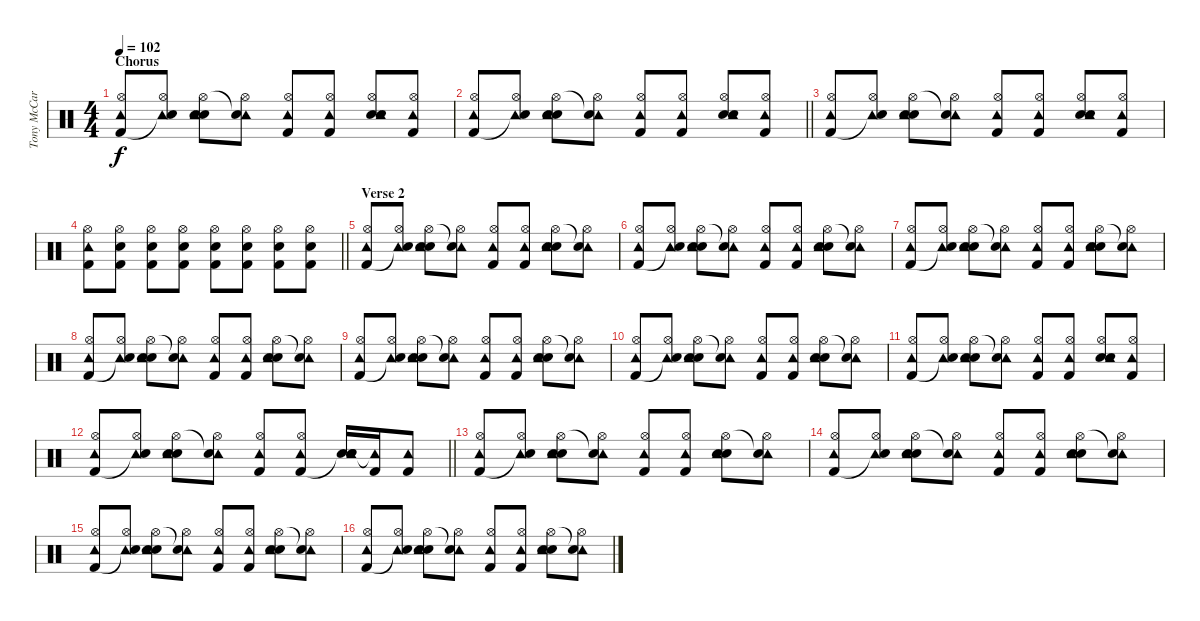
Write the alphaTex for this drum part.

\track ("Tony McCaroll" "Tony McCar") {instrument percussion}
\staff {score}
\articulation defaults
\ts (4 4)
\section ("" "Chorus")
\tempo 102
\clef neutral
\ks c
("Tambourine (hit)" "Hi-Hat (open)" "Kick (hit) 2").8{dy f} ("Tambourine (hit)" "Hi-Hat (open)" "Snare (hit)"{t}).8 ("Hand Clap (hit)" "Tambourine (hit)" "Hi-Hat (open)" "Electric Snare (hit)").8 ("Tambourine (hit)" "Hi-Hat (open)" "Snare (hit)"{t}).8 ("Tambourine (hit)" "Hi-Hat (open)" "Kick (hit) 2").8 ("Tambourine (hit)" "Hi-Hat (open)" "Kick (hit) 2").8 ("Hand Clap (hit)" "Tambourine (hit)" "Hi-Hat (open)" "Electric Snare (hit)").8 ("Tambourine (hit)" "Hi-Hat (open)" "Kick (hit) 2").8 |
\barLineRight lightlight
("Tambourine (hit)" "Hi-Hat (open)" "Kick (hit) 2").8 ("Tambourine (hit)" "Hi-Hat (open)" "Snare (hit)"{t}).8 ("Hand Clap (hit)" "Tambourine (hit)" "Hi-Hat (open)" "Electric Snare (hit)").8 ("Tambourine (hit)" "Hi-Hat (open)" "Snare (hit)"{t}).8 ("Tambourine (hit)" "Hi-Hat (open)" "Kick (hit) 2").8 ("Tambourine (hit)" "Hi-Hat (open)" "Kick (hit) 2").8 ("Hand Clap (hit)" "Tambourine (hit)" "Hi-Hat (open)" "Electric Snare (hit)").8 ("Tambourine (hit)" "Hi-Hat (open)" "Kick (hit) 2").8 |
("Tambourine (hit)" "Hi-Hat (open)" "Kick (hit) 2").8 ("Tambourine (hit)" "Hi-Hat (open)" "Snare (hit)"{t}).8 ("Hand Clap (hit)" "Tambourine (hit)" "Hi-Hat (open)" "Electric Snare (hit)").8 ("Tambourine (hit)" "Hi-Hat (open)" "Snare (hit)"{t}).8 ("Tambourine (hit)" "Hi-Hat (open)" "Kick (hit) 2").8 ("Tambourine (hit)" "Hi-Hat (open)" "Kick (hit) 2").8 ("Hand Clap (hit)" "Tambourine (hit)" "Hi-Hat (open)" "Electric Snare (hit)").8 ("Tambourine (hit)" "Hi-Hat (open)" "Kick (hit) 2").8 |
\barLineRight lightlight
("Tambourine (hit)" "Hi-Hat (open)" "Kick (hit) 2").8 ("Hi-Hat (open)" "Electric Snare (hit)" "Kick (hit) 2").8 ("Hi-Hat (open)" "Electric Snare (hit)" "Kick (hit) 2").8 ("Hi-Hat (open)" "Electric Snare (hit)" "Kick (hit) 2").8 ("Hi-Hat (open)" "Electric Snare (hit)" "Kick (hit) 2").8 ("Hi-Hat (open)" "Electric Snare (hit)" "Kick (hit) 2").8 ("Hi-Hat (open)" "Electric Snare (hit)" "Kick (hit) 2").8 ("Hi-Hat (open)" "Electric Snare (hit)" "Kick (hit) 2").8 |
\section ("" "Verse 2")
("Tambourine (hit)" "Hi-Hat (open)" "Kick (hit) 2").8 ("Tambourine (hit)" "Hi-Hat (open)" "Snare (hit)"{t}).8 ("Hand Clap (hit)" "Tambourine (hit)" "Hi-Hat (open)" "Electric Snare (hit)").8 ("Tambourine (hit)" "Hi-Hat (open)" "Snare (hit)"{t}).8 ("Tambourine (hit)" "Hi-Hat (open)" "Kick (hit) 2").8 ("Tambourine (hit)" "Hi-Hat (open)" "Kick (hit) 2").8 ("Hand Clap (hit)" "Tambourine (hit)" "Hi-Hat (open)" "Electric Snare (hit)").8 ("Tambourine (hit)" "Hi-Hat (open)" "Snare (hit)"{t}).8 |
("Tambourine (hit)" "Hi-Hat (open)" "Kick (hit) 2").8 ("Tambourine (hit)" "Hi-Hat (open)" "Snare (hit)"{t}).8 ("Hand Clap (hit)" "Tambourine (hit)" "Hi-Hat (open)" "Electric Snare (hit)").8 ("Tambourine (hit)" "Hi-Hat (open)" "Snare (hit)"{t}).8 ("Tambourine (hit)" "Hi-Hat (open)" "Kick (hit) 2").8 ("Tambourine (hit)" "Hi-Hat (open)" "Kick (hit) 2").8 ("Hand Clap (hit)" "Tambourine (hit)" "Hi-Hat (open)" "Electric Snare (hit)").8 ("Tambourine (hit)" "Hi-Hat (open)" "Snare (hit)"{t}).8 |
("Tambourine (hit)" "Hi-Hat (open)" "Kick (hit) 2").8 ("Tambourine (hit)" "Hi-Hat (open)" "Snare (hit)"{t}).8 ("Hand Clap (hit)" "Tambourine (hit)" "Hi-Hat (open)" "Electric Snare (hit)").8 ("Tambourine (hit)" "Hi-Hat (open)" "Snare (hit)"{t}).8 ("Tambourine (hit)" "Hi-Hat (open)" "Kick (hit) 2").8 ("Tambourine (hit)" "Hi-Hat (open)" "Kick (hit) 2").8 ("Hand Clap (hit)" "Tambourine (hit)" "Hi-Hat (open)" "Electric Snare (hit)").8 ("Tambourine (hit)" "Hi-Hat (open)" "Snare (hit)"{t}).8 |
("Tambourine (hit)" "Hi-Hat (open)" "Kick (hit) 2").8 ("Tambourine (hit)" "Hi-Hat (open)" "Snare (hit)"{t}).8 ("Hand Clap (hit)" "Tambourine (hit)" "Hi-Hat (open)" "Electric Snare (hit)").8 ("Tambourine (hit)" "Hi-Hat (open)" "Snare (hit)"{t}).8 ("Tambourine (hit)" "Hi-Hat (open)" "Kick (hit) 2").8 ("Tambourine (hit)" "Hi-Hat (open)" "Kick (hit) 2").8 ("Hand Clap (hit)" "Tambourine (hit)" "Hi-Hat (open)" "Electric Snare (hit)").8 ("Tambourine (hit)" "Hi-Hat (open)" "Snare (hit)"{t}).8 |
("Tambourine (hit)" "Hi-Hat (open)" "Kick (hit) 2").8 ("Tambourine (hit)" "Hi-Hat (open)" "Snare (hit)"{t}).8 ("Hand Clap (hit)" "Tambourine (hit)" "Hi-Hat (open)" "Electric Snare (hit)").8 ("Tambourine (hit)" "Hi-Hat (open)" "Snare (hit)"{t}).8 ("Tambourine (hit)" "Hi-Hat (open)" "Kick (hit) 2").8 ("Tambourine (hit)" "Hi-Hat (open)" "Kick (hit) 2").8 ("Hand Clap (hit)" "Tambourine (hit)" "Hi-Hat (open)" "Electric Snare (hit)").8 ("Tambourine (hit)" "Hi-Hat (open)" "Snare (hit)"{t}).8 |
("Tambourine (hit)" "Hi-Hat (open)" "Kick (hit) 2").8 ("Tambourine (hit)" "Hi-Hat (open)" "Snare (hit)"{t}).8 ("Hand Clap (hit)" "Tambourine (hit)" "Hi-Hat (open)" "Electric Snare (hit)").8 ("Tambourine (hit)" "Hi-Hat (open)" "Snare (hit)"{t}).8 ("Tambourine (hit)" "Hi-Hat (open)" "Kick (hit) 2").8 ("Tambourine (hit)" "Hi-Hat (open)" "Kick (hit) 2").8 ("Hand Clap (hit)" "Tambourine (hit)" "Hi-Hat (open)" "Electric Snare (hit)").8 ("Tambourine (hit)" "Hi-Hat (open)" "Snare (hit)"{t}).8 |
("Tambourine (hit)" "Hi-Hat (open)" "Kick (hit) 2").8 ("Tambourine (hit)" "Hi-Hat (open)" "Snare (hit)"{t}).8 ("Hand Clap (hit)" "Tambourine (hit)" "Hi-Hat (open)" "Electric Snare (hit)").8 ("Tambourine (hit)" "Hi-Hat (open)" "Snare (hit)"{t}).8 ("Tambourine (hit)" "Hi-Hat (open)" "Kick (hit) 2").8 ("Tambourine (hit)" "Hi-Hat (open)" "Kick (hit) 2").8 ("Hand Clap (hit)" "Tambourine (hit)" "Hi-Hat (open)" "Electric Snare (hit)").8 ("Tambourine (hit)" "Hi-Hat (open)" "Kick (hit) 2").8 |
\barLineRight lightlight
("Tambourine (hit)" "Hi-Hat (open)" "Kick (hit) 2").8 ("Tambourine (hit)" "Hi-Hat (open)" "Snare (hit)"{t}).8 ("Hand Clap (hit)" "Tambourine (hit)" "Hi-Hat (open)" "Electric Snare (hit)").8 ("Tambourine (hit)" "Hi-Hat (open)" "Snare (hit)"{t}).8 ("Tambourine (hit)" "Hi-Hat (open)" "Kick (hit) 2").8 ("Tambourine (hit)" "Hi-Hat (open)" "Kick (hit) 2").8 ("Hand Clap (hit)" "Tambourine (hit)" "Electric Snare (hit)"{t} "Electric Snare (hit)").16 ("Tambourine (hit)"{t} "Kick (hit) 2").16 ("Tambourine (hit)" "Kick (hit) 2").8 |
("Tambourine (hit)" "Hi-Hat (open)" "Kick (hit) 2").8 ("Tambourine (hit)" "Hi-Hat (open)" "Snare (hit)"{t}).8 ("Hand Clap (hit)" "Tambourine (hit)" "Hi-Hat (open)" "Electric Snare (hit)").8 ("Tambourine (hit)" "Hi-Hat (open)" "Snare (hit)"{t}).8 ("Tambourine (hit)" "Hi-Hat (open)" "Kick (hit) 2").8 ("Tambourine (hit)" "Hi-Hat (open)" "Kick (hit) 2").8 ("Hand Clap (hit)" "Tambourine (hit)" "Hi-Hat (open)" "Electric Snare (hit)").8 ("Tambourine (hit)" "Hi-Hat (open)" "Snare (hit)"{t}).8 |
("Tambourine (hit)" "Hi-Hat (open)" "Kick (hit) 2").8 ("Tambourine (hit)" "Hi-Hat (open)" "Snare (hit)"{t}).8 ("Hand Clap (hit)" "Tambourine (hit)" "Hi-Hat (open)" "Electric Snare (hit)").8 ("Tambourine (hit)" "Hi-Hat (open)" "Snare (hit)"{t}).8 ("Tambourine (hit)" "Hi-Hat (open)" "Kick (hit) 2").8 ("Tambourine (hit)" "Hi-Hat (open)" "Kick (hit) 2").8 ("Hand Clap (hit)" "Tambourine (hit)" "Hi-Hat (open)" "Electric Snare (hit)").8 ("Tambourine (hit)" "Hi-Hat (open)" "Snare (hit)"{t}).8 |
("Tambourine (hit)" "Hi-Hat (open)" "Kick (hit) 2").8 ("Tambourine (hit)" "Hi-Hat (open)" "Snare (hit)"{t}).8 ("Hand Clap (hit)" "Tambourine (hit)" "Hi-Hat (open)" "Electric Snare (hit)").8 ("Tambourine (hit)" "Hi-Hat (open)" "Snare (hit)"{t}).8 ("Tambourine (hit)" "Hi-Hat (open)" "Kick (hit) 2").8 ("Tambourine (hit)" "Hi-Hat (open)" "Kick (hit) 2").8 ("Hand Clap (hit)" "Tambourine (hit)" "Hi-Hat (open)" "Electric Snare (hit)").8 ("Tambourine (hit)" "Hi-Hat (open)" "Snare (hit)"{t}).8 |
("Tambourine (hit)" "Hi-Hat (open)" "Kick (hit) 2").8 ("Tambourine (hit)" "Hi-Hat (open)" "Snare (hit)"{t}).8 ("Hand Clap (hit)" "Tambourine (hit)" "Hi-Hat (open)" "Electric Snare (hit)").8 ("Tambourine (hit)" "Hi-Hat (open)" "Snare (hit)"{t}).8 ("Tambourine (hit)" "Hi-Hat (open)" "Kick (hit) 2").8 ("Tambourine (hit)" "Hi-Hat (open)" "Kick (hit) 2").8 ("Hand Clap (hit)" "Tambourine (hit)" "Hi-Hat (open)" "Electric Snare (hit)").8 ("Tambourine (hit)" "Hi-Hat (open)" "Snare (hit)"{t}).8
